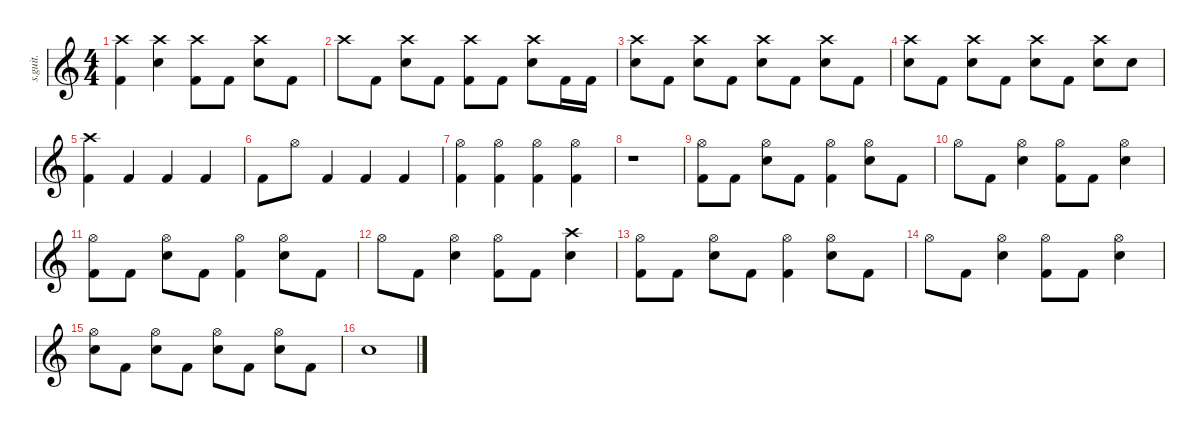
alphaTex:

\defaultSystemsLayout 4
\hideDynamics
\bracketExtendMode nobrackets
\track ("" "s.guit.") {instrument percussion}
\staff {score}
\articulation defaults
\ts (4 4)
\tempo (184 hide)
\clef g2
\ks c
("Crash high (hit)" "Kick (hit) 2").4{dy f} ("Crash high (hit)" "Snare (hit) 2").4 ("Crash high (hit)" "Kick (hit) 2").8 "Kick (hit) 2".8 ("Crash high (hit)" "Snare (hit) 2").8 "Kick (hit) 2".8 |
"Crash high (hit)".8 "Kick (hit) 2".8 ("Crash high (hit)" "Snare (hit) 2").8 "Kick (hit) 2".8 ("Crash high (hit)" "Kick (hit) 2").8 "Kick (hit) 2".8 ("Crash high (hit)" "Snare (hit) 2").8 "Kick (hit) 2".16 "Kick (hit) 2".16 |
("Crash high (hit)" "Snare (hit) 2").8 "Kick (hit) 2".8 ("Crash high (hit)" "Snare (hit) 2").8 "Kick (hit) 2".8 ("Crash high (hit)" "Snare (hit) 2").8 "Kick (hit) 2".8 ("Crash high (hit)" "Snare (hit) 2").8 "Kick (hit) 2".8 |
("Crash high (hit)" "Snare (hit) 2").8 "Kick (hit) 2".8 ("Crash high (hit)" "Snare (hit) 2").8 "Kick (hit) 2".8 ("Crash high (hit)" "Snare (hit) 2").8 "Kick (hit) 2".8 ("Crash high (hit)" "Snare (hit) 2").8 "Snare (hit) 2".8 |
("Crash high (hit)" "Kick (hit) 2").4 "Kick (hit) 2".4 "Kick (hit) 2".4 "Kick (hit) 2".4 |
"Kick (hit) 2".8 "Hi-Hat (open)".8 "Kick (hit) 2".4 "Kick (hit) 2".4 "Kick (hit) 2".4 |
("Hi-Hat (open)" "Kick (hit) 2").4 ("Hi-Hat (open)" "Kick (hit) 2").4 ("Hi-Hat (open)" "Kick (hit) 2").4 ("Hi-Hat (open)" "Kick (hit) 2").4 |
r.1 |
("Hi-Hat (open)" "Kick (hit) 2").8 "Kick (hit) 2".8 ("Hi-Hat (open)" "Snare (hit) 2").8 "Kick (hit) 2".8 ("Hi-Hat (open)" "Kick (hit) 2").4 ("Hi-Hat (open)" "Snare (hit) 2").8 "Kick (hit) 2".8 |
"Hi-Hat (open)".8 "Kick (hit) 2".8 ("Hi-Hat (open)" "Snare (hit) 2").4 ("Hi-Hat (open)" "Kick (hit) 2").8 "Kick (hit) 2".8 ("Hi-Hat (open)" "Snare (hit) 2").4 |
("Hi-Hat (open)" "Kick (hit) 2").8 "Kick (hit) 2".8 ("Hi-Hat (open)" "Snare (hit) 2").8 "Kick (hit) 2".8 ("Hi-Hat (open)" "Kick (hit) 2").4 ("Hi-Hat (open)" "Snare (hit) 2").8 "Kick (hit) 2".8 |
"Hi-Hat (open)".8 "Kick (hit) 2".8 ("Hi-Hat (open)" "Snare (hit) 2").4 ("Hi-Hat (open)" "Kick (hit) 2").8 "Kick (hit) 2".8 ("Crash high (hit)" "Snare (hit) 2").4 |
("Hi-Hat (open)" "Kick (hit) 2").8 "Kick (hit) 2".8 ("Hi-Hat (open)" "Snare (hit) 2").8 "Kick (hit) 2".8 ("Hi-Hat (open)" "Kick (hit) 2").4 ("Hi-Hat (open)" "Snare (hit) 2").8 "Kick (hit) 2".8 |
"Hi-Hat (open)".8 "Kick (hit) 2".8 ("Hi-Hat (open)" "Snare (hit) 2").4 ("Hi-Hat (open)" "Kick (hit) 2").8 "Kick (hit) 2".8 ("Hi-Hat (open)" "Snare (hit) 2").4 |
("Hi-Hat (open)" "Snare (hit) 2").8 "Kick (hit) 2".8 ("Hi-Hat (open)" "Snare (hit) 2").8 "Kick (hit) 2".8 ("Hi-Hat (open)" "Snare (hit) 2").8 "Kick (hit) 2".8 ("Hi-Hat (open)" "Snare (hit) 2").8 "Kick (hit) 2".8 |
"Snare (hit) 2".1
